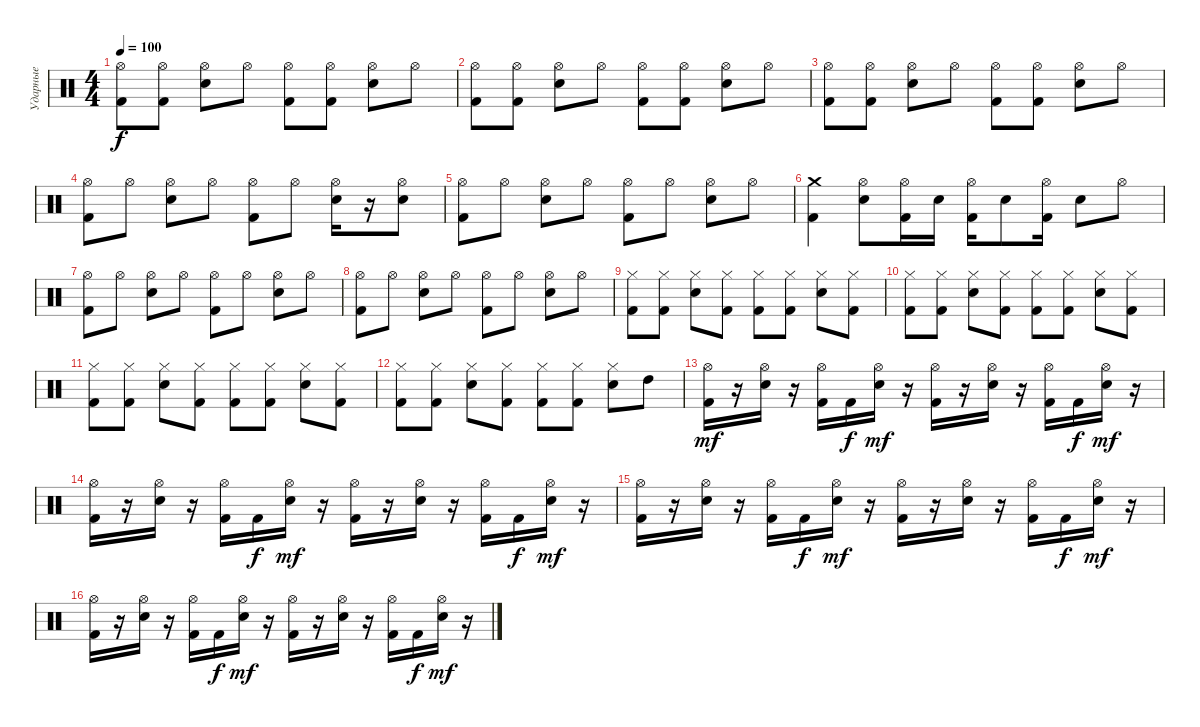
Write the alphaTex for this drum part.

\track ("Ударные" "Ударные") {instrument percussion}
\staff {score}
\articulation defaults
\ts (4 4)
\tempo 100
\clef neutral
\ks c
("Hi-Hat (open)" "Kick (hit) 2").8{dy f} ("Hi-Hat (open)" "Kick (hit) 2").8 ("Hi-Hat (open)" "Electric Snare (hit)").8 "Hi-Hat (open)".8 ("Hi-Hat (open)" "Kick (hit) 2").8 ("Hi-Hat (open)" "Kick (hit) 2").8 ("Hi-Hat (open)" "Electric Snare (hit)").8 "Hi-Hat (open)".8 |
("Hi-Hat (open)" "Kick (hit) 2").8 ("Hi-Hat (open)" "Kick (hit) 2").8 ("Hi-Hat (open)" "Electric Snare (hit)").8 "Hi-Hat (open)".8 ("Hi-Hat (open)" "Kick (hit) 2").8 ("Hi-Hat (open)" "Kick (hit) 2").8 ("Hi-Hat (open)" "Electric Snare (hit)").8 "Hi-Hat (open)".8 |
("Hi-Hat (open)" "Kick (hit) 2").8 ("Hi-Hat (open)" "Kick (hit) 2").8 ("Hi-Hat (open)" "Electric Snare (hit)").8 "Hi-Hat (open)".8 ("Hi-Hat (open)" "Kick (hit) 2").8 ("Hi-Hat (open)" "Kick (hit) 2").8 ("Hi-Hat (open)" "Electric Snare (hit)").8 "Hi-Hat (open)".8 |
("Hi-Hat (open)" "Kick (hit) 2").8 "Hi-Hat (open)".8 ("Hi-Hat (open)" "Electric Snare (hit)").8 "Hi-Hat (open)".8 ("Hi-Hat (open)" "Kick (hit) 2").8 "Hi-Hat (open)".8 ("Hi-Hat (open)" "Electric Snare (hit)").16 r.16 ("Hi-Hat (open)" "Electric Snare (hit)").8 |
("Hi-Hat (open)" "Kick (hit) 2").8 "Hi-Hat (open)".8 ("Hi-Hat (open)" "Electric Snare (hit)").8 "Hi-Hat (open)".8 ("Hi-Hat (open)" "Kick (hit) 2").8 "Hi-Hat (open)".8 ("Hi-Hat (open)" "Electric Snare (hit)").8 "Hi-Hat (open)".8 |
("Crash medium (hit)" "Kick (hit) 2").4 ("Hi-Hat (open)" "Electric Snare (hit)").8 ("Hi-Hat (open)" "Kick (hit) 2").16 "Electric Snare (hit)".16 ("Hi-Hat (open)" "Kick (hit) 2").16 "Electric Snare (hit)".8 ("Hi-Hat (open)" "Kick (hit) 2").16 "Electric Snare (hit)".8 "Hi-Hat (open)".8 |
("Hi-Hat (open)" "Kick (hit) 2").8 "Hi-Hat (open)".8 ("Hi-Hat (open)" "Electric Snare (hit)").8 "Hi-Hat (open)".8 ("Hi-Hat (open)" "Kick (hit) 2").8 "Hi-Hat (open)".8 ("Hi-Hat (open)" "Electric Snare (hit)").8 "Hi-Hat (open)".8 |
("Hi-Hat (open)" "Kick (hit) 2").8 "Hi-Hat (open)".8 ("Hi-Hat (open)" "Electric Snare (hit)").8 "Hi-Hat (open)".8 ("Hi-Hat (open)" "Kick (hit) 2").8 "Hi-Hat (open)".8 ("Hi-Hat (open)" "Electric Snare (hit)").8 "Hi-Hat (open)".8 |
("Hi-Hat (closed)" "Kick (hit) 2").8 ("Hi-Hat (closed)" "Kick (hit) 2").8 ("Hi-Hat (closed)" "Electric Snare (hit)").8 ("Hi-Hat (closed)" "Kick (hit) 2").8 ("Hi-Hat (closed)" "Kick (hit) 2").8 ("Hi-Hat (closed)" "Kick (hit) 2").8 ("Hi-Hat (closed)" "Electric Snare (hit)").8 ("Hi-Hat (closed)" "Kick (hit) 2").8 |
("Hi-Hat (closed)" "Kick (hit) 2").8 ("Hi-Hat (closed)" "Kick (hit) 2").8 ("Hi-Hat (closed)" "Electric Snare (hit)").8 ("Hi-Hat (closed)" "Kick (hit) 2").8 ("Hi-Hat (closed)" "Kick (hit) 2").8 ("Hi-Hat (closed)" "Kick (hit) 2").8 ("Hi-Hat (closed)" "Electric Snare (hit)").8 ("Hi-Hat (closed)" "Kick (hit) 2").8 |
("Hi-Hat (closed)" "Kick (hit) 2").8 ("Hi-Hat (closed)" "Kick (hit) 2").8 ("Hi-Hat (closed)" "Electric Snare (hit)").8 ("Hi-Hat (closed)" "Kick (hit) 2").8 ("Hi-Hat (closed)" "Kick (hit) 2").8 ("Hi-Hat (closed)" "Kick (hit) 2").8 ("Hi-Hat (closed)" "Electric Snare (hit)").8 ("Hi-Hat (closed)" "Kick (hit) 2").8 |
("Hi-Hat (closed)" "Kick (hit) 2").8 ("Hi-Hat (closed)" "Kick (hit) 2").8 ("Hi-Hat (closed)" "Electric Snare (hit)").8 ("Hi-Hat (closed)" "Kick (hit) 2").8 ("Hi-Hat (closed)" "Kick (hit) 2").8 ("Hi-Hat (closed)" "Kick (hit) 2").8 ("Hi-Hat (closed)" "Electric Snare (hit)").8 "High Tom (hit)".8 |
("Hi-Hat (open)" "Kick (hit) 2").16{dy mf} r.16 ("Hi-Hat (open)" "Electric Snare (hit)").16 r.16 ("Hi-Hat (open)" "Kick (hit) 2").16 "Kick (hit) 2".16{dy f} ("Hi-Hat (open)" "Electric Snare (hit)").16{dy mf} r.16 ("Hi-Hat (open)" "Kick (hit) 2").16 r.16 ("Hi-Hat (open)" "Electric Snare (hit)").16 r.16 ("Hi-Hat (open)" "Kick (hit) 2").16 "Kick (hit) 2".16{dy f} ("Hi-Hat (open)" "Electric Snare (hit)").16{dy mf} r.16 |
("Hi-Hat (open)" "Kick (hit) 2").16 r.16 ("Hi-Hat (open)" "Electric Snare (hit)").16 r.16 ("Hi-Hat (open)" "Kick (hit) 2").16 "Kick (hit) 2".16{dy f} ("Hi-Hat (open)" "Electric Snare (hit)").16{dy mf} r.16 ("Hi-Hat (open)" "Kick (hit) 2").16 r.16 ("Hi-Hat (open)" "Electric Snare (hit)").16 r.16 ("Hi-Hat (open)" "Kick (hit) 2").16 "Kick (hit) 2".16{dy f} ("Hi-Hat (open)" "Electric Snare (hit)").16{dy mf} r.16 |
("Hi-Hat (open)" "Kick (hit) 2").16 r.16 ("Hi-Hat (open)" "Electric Snare (hit)").16 r.16 ("Hi-Hat (open)" "Kick (hit) 2").16 "Kick (hit) 2".16{dy f} ("Hi-Hat (open)" "Electric Snare (hit)").16{dy mf} r.16 ("Hi-Hat (open)" "Kick (hit) 2").16 r.16 ("Hi-Hat (open)" "Electric Snare (hit)").16 r.16 ("Hi-Hat (open)" "Kick (hit) 2").16 "Kick (hit) 2".16{dy f} ("Hi-Hat (open)" "Electric Snare (hit)").16{dy mf} r.16 |
("Hi-Hat (open)" "Kick (hit) 2").16 r.16 ("Hi-Hat (open)" "Electric Snare (hit)").16 r.16 ("Hi-Hat (open)" "Kick (hit) 2").16 "Kick (hit) 2".16{dy f} ("Hi-Hat (open)" "Electric Snare (hit)").16{dy mf} r.16 ("Hi-Hat (open)" "Kick (hit) 2").16 r.16 ("Hi-Hat (open)" "Electric Snare (hit)").16 r.16 ("Hi-Hat (open)" "Kick (hit) 2").16 "Kick (hit) 2".16{dy f} ("Hi-Hat (open)" "Electric Snare (hit)").16{dy mf} r.16
